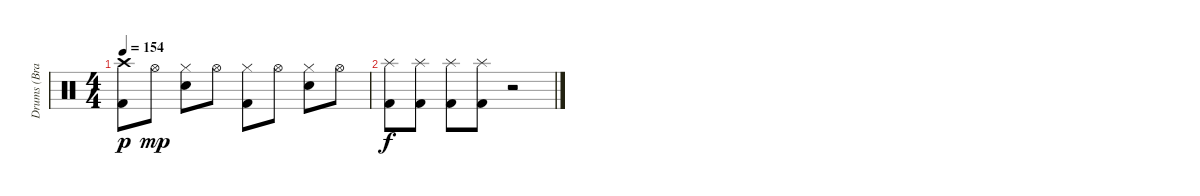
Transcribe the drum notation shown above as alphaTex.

\track ("Drums (Brandon Saller)" "Drums (Bra") {instrument percussion}
\staff {score}
\articulation defaults
\ts (4 4)
\tempo 154
\clef neutral
\ks c
("Crash high (hit)" "Kick (hit) 2").8{dy p} "Hi-Hat (open)".8{dy mp} ("Hi-Hat (closed)" "Electric Snare (hit)").8 "Hi-Hat (open)".8 ("Hi-Hat (closed)" "Kick (hit) 2").8 "Hi-Hat (open)".8 ("Hi-Hat (closed)" "Electric Snare (hit)").8 "Hi-Hat (open)".8 |
("Splash (hit)" "Kick (hit) 2").8{dy f} ("Splash (hit)" "Kick (hit) 2").8 ("Splash (hit)" "Kick (hit) 2").8 ("Splash (hit)" "Kick (hit) 2").8 r.2
